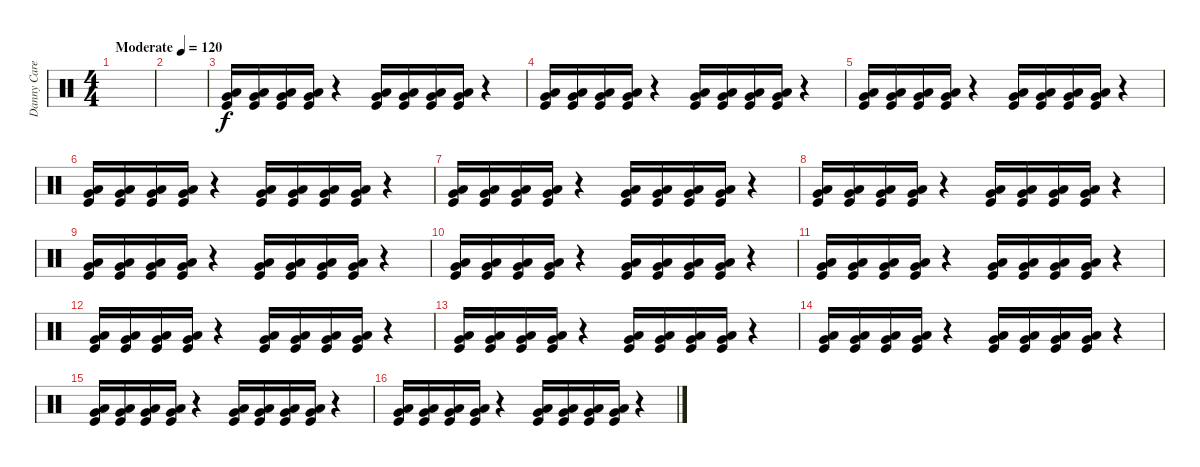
\track ("Danny Carey" "Danny Care") {instrument percussion}
\staff {score}
\articulation defaults
\ts (4 4)
\tempo (120 "Moderate")
\tempo 112
\tempo (120 "Moderate")
\clef neutral
\ks c
|
|
("Very Low Tom (hit)" "Low Floor Tom (hit)" "Kick (hit)").16{volume 1} ("Very Low Tom (hit)" "Low Floor Tom (hit)" "Kick (hit)").16 ("Very Low Tom (hit)" "Low Floor Tom (hit)" "Kick (hit)").16 ("Very Low Tom (hit)" "Low Floor Tom (hit)" "Kick (hit)").16 r.4 ("Very Low Tom (hit)" "Low Floor Tom (hit)" "Kick (hit)").16 ("Very Low Tom (hit)" "Low Floor Tom (hit)" "Kick (hit)").16 ("Very Low Tom (hit)" "Low Floor Tom (hit)" "Kick (hit)").16 ("Very Low Tom (hit)" "Low Floor Tom (hit)" "Kick (hit)").16 r.4 |
("Very Low Tom (hit)" "Low Floor Tom (hit)" "Kick (hit)").16 ("Very Low Tom (hit)" "Low Floor Tom (hit)" "Kick (hit)").16 ("Very Low Tom (hit)" "Low Floor Tom (hit)" "Kick (hit)").16 ("Very Low Tom (hit)" "Low Floor Tom (hit)" "Kick (hit)").16 r.4 ("Very Low Tom (hit)" "Low Floor Tom (hit)" "Kick (hit)").16 ("Very Low Tom (hit)" "Low Floor Tom (hit)" "Kick (hit)").16 ("Very Low Tom (hit)" "Low Floor Tom (hit)" "Kick (hit)").16 ("Very Low Tom (hit)" "Low Floor Tom (hit)" "Kick (hit)").16 r.4 |
("Very Low Tom (hit)" "Low Floor Tom (hit)" "Kick (hit)").16 ("Very Low Tom (hit)" "Low Floor Tom (hit)" "Kick (hit)").16 ("Very Low Tom (hit)" "Low Floor Tom (hit)" "Kick (hit)").16 ("Very Low Tom (hit)" "Low Floor Tom (hit)" "Kick (hit)").16 r.4 ("Very Low Tom (hit)" "Low Floor Tom (hit)" "Kick (hit)").16 ("Very Low Tom (hit)" "Low Floor Tom (hit)" "Kick (hit)").16 ("Very Low Tom (hit)" "Low Floor Tom (hit)" "Kick (hit)").16 ("Very Low Tom (hit)" "Low Floor Tom (hit)" "Kick (hit)").16 r.4 |
("Very Low Tom (hit)" "Low Floor Tom (hit)" "Kick (hit)").16 ("Very Low Tom (hit)" "Low Floor Tom (hit)" "Kick (hit)").16 ("Very Low Tom (hit)" "Low Floor Tom (hit)" "Kick (hit)").16 ("Very Low Tom (hit)" "Low Floor Tom (hit)" "Kick (hit)").16 r.4 ("Very Low Tom (hit)" "Low Floor Tom (hit)" "Kick (hit)").16 ("Very Low Tom (hit)" "Low Floor Tom (hit)" "Kick (hit)").16 ("Very Low Tom (hit)" "Low Floor Tom (hit)" "Kick (hit)").16 ("Very Low Tom (hit)" "Low Floor Tom (hit)" "Kick (hit)").16 r.4 |
("Very Low Tom (hit)" "Low Floor Tom (hit)" "Kick (hit)").16{volume 2} ("Very Low Tom (hit)" "Low Floor Tom (hit)" "Kick (hit)").16 ("Very Low Tom (hit)" "Low Floor Tom (hit)" "Kick (hit)").16 ("Very Low Tom (hit)" "Low Floor Tom (hit)" "Kick (hit)").16 r.4 ("Very Low Tom (hit)" "Low Floor Tom (hit)" "Kick (hit)").16 ("Very Low Tom (hit)" "Low Floor Tom (hit)" "Kick (hit)").16 ("Very Low Tom (hit)" "Low Floor Tom (hit)" "Kick (hit)").16 ("Very Low Tom (hit)" "Low Floor Tom (hit)" "Kick (hit)").16 r.4 |
("Very Low Tom (hit)" "Low Floor Tom (hit)" "Kick (hit)").16 ("Very Low Tom (hit)" "Low Floor Tom (hit)" "Kick (hit)").16 ("Very Low Tom (hit)" "Low Floor Tom (hit)" "Kick (hit)").16 ("Very Low Tom (hit)" "Low Floor Tom (hit)" "Kick (hit)").16 r.4 ("Very Low Tom (hit)" "Low Floor Tom (hit)" "Kick (hit)").16 ("Very Low Tom (hit)" "Low Floor Tom (hit)" "Kick (hit)").16 ("Very Low Tom (hit)" "Low Floor Tom (hit)" "Kick (hit)").16 ("Very Low Tom (hit)" "Low Floor Tom (hit)" "Kick (hit)").16 r.4 |
("Very Low Tom (hit)" "Low Floor Tom (hit)" "Kick (hit)").16 ("Very Low Tom (hit)" "Low Floor Tom (hit)" "Kick (hit)").16 ("Very Low Tom (hit)" "Low Floor Tom (hit)" "Kick (hit)").16 ("Very Low Tom (hit)" "Low Floor Tom (hit)" "Kick (hit)").16 r.4 ("Very Low Tom (hit)" "Low Floor Tom (hit)" "Kick (hit)").16 ("Very Low Tom (hit)" "Low Floor Tom (hit)" "Kick (hit)").16 ("Very Low Tom (hit)" "Low Floor Tom (hit)" "Kick (hit)").16 ("Very Low Tom (hit)" "Low Floor Tom (hit)" "Kick (hit)").16 r.4 |
("Very Low Tom (hit)" "Low Floor Tom (hit)" "Kick (hit)").16 ("Very Low Tom (hit)" "Low Floor Tom (hit)" "Kick (hit)").16 ("Very Low Tom (hit)" "Low Floor Tom (hit)" "Kick (hit)").16 ("Very Low Tom (hit)" "Low Floor Tom (hit)" "Kick (hit)").16 r.4 ("Very Low Tom (hit)" "Low Floor Tom (hit)" "Kick (hit)").16 ("Very Low Tom (hit)" "Low Floor Tom (hit)" "Kick (hit)").16 ("Very Low Tom (hit)" "Low Floor Tom (hit)" "Kick (hit)").16 ("Very Low Tom (hit)" "Low Floor Tom (hit)" "Kick (hit)").16 r.4 |
("Very Low Tom (hit)" "Low Floor Tom (hit)" "Kick (hit)").16{volume 4} ("Very Low Tom (hit)" "Low Floor Tom (hit)" "Kick (hit)").16 ("Very Low Tom (hit)" "Low Floor Tom (hit)" "Kick (hit)").16 ("Very Low Tom (hit)" "Low Floor Tom (hit)" "Kick (hit)").16 r.4 ("Very Low Tom (hit)" "Low Floor Tom (hit)" "Kick (hit)").16 ("Very Low Tom (hit)" "Low Floor Tom (hit)" "Kick (hit)").16 ("Very Low Tom (hit)" "Low Floor Tom (hit)" "Kick (hit)").16 ("Very Low Tom (hit)" "Low Floor Tom (hit)" "Kick (hit)").16 r.4 |
("Very Low Tom (hit)" "Low Floor Tom (hit)" "Kick (hit)").16 ("Very Low Tom (hit)" "Low Floor Tom (hit)" "Kick (hit)").16 ("Very Low Tom (hit)" "Low Floor Tom (hit)" "Kick (hit)").16 ("Very Low Tom (hit)" "Low Floor Tom (hit)" "Kick (hit)").16 r.4 ("Very Low Tom (hit)" "Low Floor Tom (hit)" "Kick (hit)").16 ("Very Low Tom (hit)" "Low Floor Tom (hit)" "Kick (hit)").16 ("Very Low Tom (hit)" "Low Floor Tom (hit)" "Kick (hit)").16 ("Very Low Tom (hit)" "Low Floor Tom (hit)" "Kick (hit)").16 r.4 |
("Very Low Tom (hit)" "Low Floor Tom (hit)" "Kick (hit)").16 ("Very Low Tom (hit)" "Low Floor Tom (hit)" "Kick (hit)").16 ("Very Low Tom (hit)" "Low Floor Tom (hit)" "Kick (hit)").16 ("Very Low Tom (hit)" "Low Floor Tom (hit)" "Kick (hit)").16 r.4 ("Very Low Tom (hit)" "Low Floor Tom (hit)" "Kick (hit)").16 ("Very Low Tom (hit)" "Low Floor Tom (hit)" "Kick (hit)").16 ("Very Low Tom (hit)" "Low Floor Tom (hit)" "Kick (hit)").16 ("Very Low Tom (hit)" "Low Floor Tom (hit)" "Kick (hit)").16 r.4 |
("Very Low Tom (hit)" "Low Floor Tom (hit)" "Kick (hit)").16 ("Very Low Tom (hit)" "Low Floor Tom (hit)" "Kick (hit)").16 ("Very Low Tom (hit)" "Low Floor Tom (hit)" "Kick (hit)").16 ("Very Low Tom (hit)" "Low Floor Tom (hit)" "Kick (hit)").16 r.4 ("Very Low Tom (hit)" "Low Floor Tom (hit)" "Kick (hit)").16 ("Very Low Tom (hit)" "Low Floor Tom (hit)" "Kick (hit)").16 ("Very Low Tom (hit)" "Low Floor Tom (hit)" "Kick (hit)").16 ("Very Low Tom (hit)" "Low Floor Tom (hit)" "Kick (hit)").16 r.4 |
("Very Low Tom (hit)" "Low Floor Tom (hit)" "Kick (hit)").16{volume 5} ("Very Low Tom (hit)" "Low Floor Tom (hit)" "Kick (hit)").16 ("Very Low Tom (hit)" "Low Floor Tom (hit)" "Kick (hit)").16 ("Very Low Tom (hit)" "Low Floor Tom (hit)" "Kick (hit)").16 r.4 ("Very Low Tom (hit)" "Low Floor Tom (hit)" "Kick (hit)").16 ("Very Low Tom (hit)" "Low Floor Tom (hit)" "Kick (hit)").16 ("Very Low Tom (hit)" "Low Floor Tom (hit)" "Kick (hit)").16 ("Very Low Tom (hit)" "Low Floor Tom (hit)" "Kick (hit)").16 r.4 |
("Very Low Tom (hit)" "Low Floor Tom (hit)" "Kick (hit)").16 ("Very Low Tom (hit)" "Low Floor Tom (hit)" "Kick (hit)").16 ("Very Low Tom (hit)" "Low Floor Tom (hit)" "Kick (hit)").16 ("Very Low Tom (hit)" "Low Floor Tom (hit)" "Kick (hit)").16 r.4 ("Very Low Tom (hit)" "Low Floor Tom (hit)" "Kick (hit)").16 ("Very Low Tom (hit)" "Low Floor Tom (hit)" "Kick (hit)").16 ("Very Low Tom (hit)" "Low Floor Tom (hit)" "Kick (hit)").16 ("Very Low Tom (hit)" "Low Floor Tom (hit)" "Kick (hit)").16 r.4
